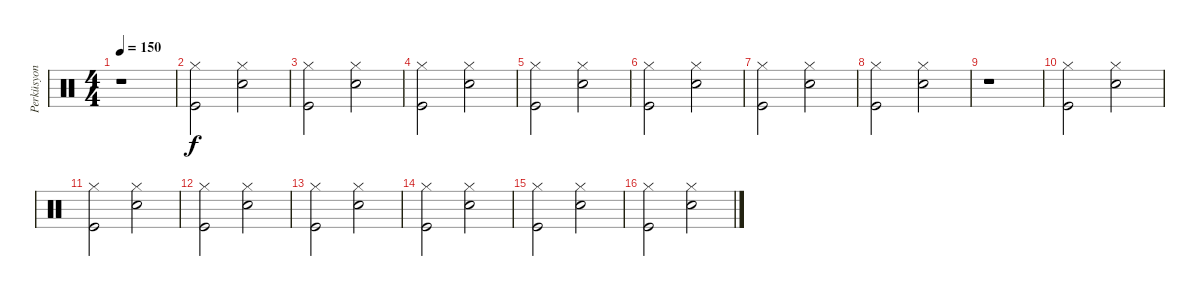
\track ("Perküsyon" "Perküsyon") {instrument percussion}
\staff {score}
\articulation defaults
\ts (4 4)
\tempo 150
\clef neutral
\ks c
r.1{dy f} |
("Kick (hit)" "Hi-Hat (closed)").2 ("Snare (hit) 2" "Hi-Hat (closed)").2 |
("Kick (hit)" "Hi-Hat (closed)").2 ("Snare (hit) 2" "Hi-Hat (closed)").2 |
("Kick (hit)" "Hi-Hat (closed)").2 ("Snare (hit) 2" "Hi-Hat (closed)").2 |
("Kick (hit)" "Hi-Hat (closed)").2 ("Snare (hit) 2" "Hi-Hat (closed)").2 |
("Kick (hit)" "Hi-Hat (closed)").2 ("Snare (hit) 2" "Hi-Hat (closed)").2 |
("Kick (hit)" "Hi-Hat (closed)").2 ("Snare (hit) 2" "Hi-Hat (closed)").2 |
("Kick (hit)" "Hi-Hat (closed)").2 ("Snare (hit) 2" "Hi-Hat (closed)").2 |
r.1 |
("Kick (hit)" "Hi-Hat (closed)").2 ("Snare (hit) 2" "Hi-Hat (closed)").2 |
("Kick (hit)" "Hi-Hat (closed)").2 ("Snare (hit) 2" "Hi-Hat (closed)").2 |
("Kick (hit)" "Hi-Hat (closed)").2 ("Snare (hit) 2" "Hi-Hat (closed)").2 |
("Kick (hit)" "Hi-Hat (closed)").2 ("Snare (hit) 2" "Hi-Hat (closed)").2 |
("Kick (hit)" "Hi-Hat (closed)").2 ("Snare (hit) 2" "Hi-Hat (closed)").2 |
("Kick (hit)" "Hi-Hat (closed)").2 ("Snare (hit) 2" "Hi-Hat (closed)").2 |
("Kick (hit)" "Hi-Hat (closed)").2 ("Snare (hit) 2" "Hi-Hat (closed)").2
